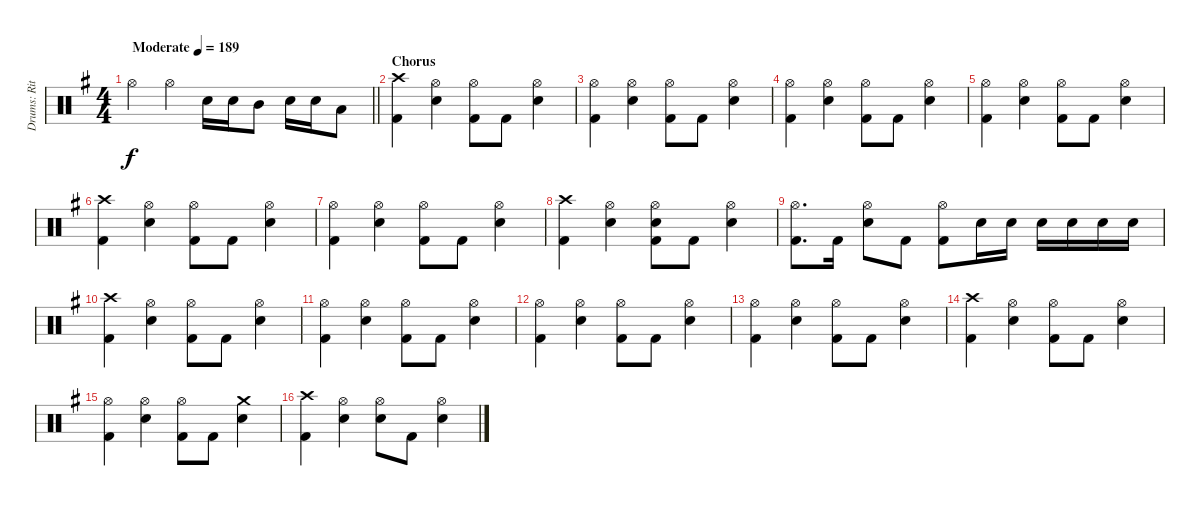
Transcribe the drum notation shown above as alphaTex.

\track ("Drums: Ritsu Tainaka" "Drums: Rit") {instrument percussion}
\staff {score}
\articulation defaults
\ts (4 4)
\tempo (189 "Moderate")
\clef neutral
\barLineRight lightlight
\ks g "Hi-Hat (open)".4{dy f} "Hi-Hat (open)".4 "Electric Snare (hit)".16 "Electric Snare (hit)".16 "Mid Tom (hit)".8 "Electric Snare (hit)".16 "Electric Snare (hit)".16 "Low Tom (hit)".8
|
\section ("" "Chorus")
("Crash high (hit)" "Kick (hit) 2").4 ("Hi-Hat (open)" "Electric Snare (hit)").4 ("Hi-Hat (open)" "Kick (hit) 2").8 "Kick (hit) 2".8 ("Hi-Hat (open)" "Electric Snare (hit)").4 |
("Hi-Hat (open)" "Kick (hit) 2").4 ("Hi-Hat (open)" "Electric Snare (hit)").4 ("Hi-Hat (open)" "Kick (hit) 2").8 "Kick (hit) 2".8 ("Hi-Hat (open)" "Electric Snare (hit)").4 |
("Hi-Hat (open)" "Kick (hit) 2").4 ("Hi-Hat (open)" "Electric Snare (hit)").4 ("Hi-Hat (open)" "Kick (hit) 2").8 "Kick (hit) 2".8 ("Hi-Hat (open)" "Electric Snare (hit)").4 |
("Hi-Hat (open)" "Kick (hit) 2").4 ("Hi-Hat (open)" "Electric Snare (hit)").4 ("Hi-Hat (open)" "Kick (hit) 2").8 "Kick (hit) 2".8 ("Hi-Hat (open)" "Electric Snare (hit)").4 |
("Crash high (hit)" "Kick (hit) 2").4 ("Hi-Hat (open)" "Electric Snare (hit)").4 ("Hi-Hat (open)" "Kick (hit) 2").8 "Kick (hit) 2".8 ("Hi-Hat (open)" "Electric Snare (hit)").4 |
("Hi-Hat (open)" "Kick (hit) 2").4 ("Hi-Hat (open)" "Electric Snare (hit)").4 ("Hi-Hat (open)" "Kick (hit) 2").8 "Kick (hit) 2".8 ("Hi-Hat (open)" "Electric Snare (hit)").4 |
("Crash high (hit)" "Kick (hit) 2").4 ("Hi-Hat (open)" "Electric Snare (hit)").4 ("Hi-Hat (open)" "Electric Snare (hit)" "Kick (hit) 2").8 "Kick (hit) 2".8 ("Hi-Hat (open)" "Electric Snare (hit)").4 |
("Hi-Hat (open)" "Kick (hit) 2").8{d} "Kick (hit) 2".16 ("Hi-Hat (open)" "Electric Snare (hit)").8 "Kick (hit) 2".8 ("Hi-Hat (open)" "Kick (hit) 2").8 "Electric Snare (hit)".16 "Electric Snare (hit)".16 "Electric Snare (hit)".16 "Electric Snare (hit)".16 "Electric Snare (hit)".16 "Electric Snare (hit)".16 |
("Crash high (hit)" "Kick (hit) 2").4 ("Hi-Hat (open)" "Electric Snare (hit)").4 ("Hi-Hat (open)" "Kick (hit) 2").8 "Kick (hit) 2".8 ("Hi-Hat (open)" "Electric Snare (hit)").4 |
("Hi-Hat (open)" "Kick (hit) 2").4 ("Hi-Hat (open)" "Electric Snare (hit)").4 ("Hi-Hat (open)" "Kick (hit) 2").8 "Kick (hit) 2".8 ("Hi-Hat (open)" "Electric Snare (hit)").4 |
("Hi-Hat (open)" "Kick (hit) 2").4 ("Hi-Hat (open)" "Electric Snare (hit)").4 ("Hi-Hat (open)" "Kick (hit) 2").8 "Kick (hit) 2".8 ("Hi-Hat (open)" "Electric Snare (hit)").4 |
("Hi-Hat (open)" "Kick (hit) 2").4 ("Hi-Hat (open)" "Electric Snare (hit)").4 ("Hi-Hat (open)" "Kick (hit) 2").8 "Kick (hit) 2".8 ("Hi-Hat (open)" "Electric Snare (hit)").4 |
("Crash high (hit)" "Kick (hit) 2").4 ("Hi-Hat (open)" "Electric Snare (hit)").4 ("Hi-Hat (open)" "Kick (hit) 2").8 "Kick (hit) 2".8 ("Hi-Hat (open)" "Electric Snare (hit)").4 |
("Hi-Hat (open)" "Kick (hit) 2").4 ("Hi-Hat (open)" "Electric Snare (hit)").4 ("Hi-Hat (open)" "Kick (hit) 2").8 "Kick (hit) 2".8 ("Crash medium (hit)" "Electric Snare (hit)").4 |
("Crash high (hit)" "Kick (hit) 2").4 ("Hi-Hat (open)" "Electric Snare (hit)").4 ("Hi-Hat (open)" "Electric Snare (hit)").8 "Kick (hit) 2".8 ("Hi-Hat (open)" "Electric Snare (hit)").4
